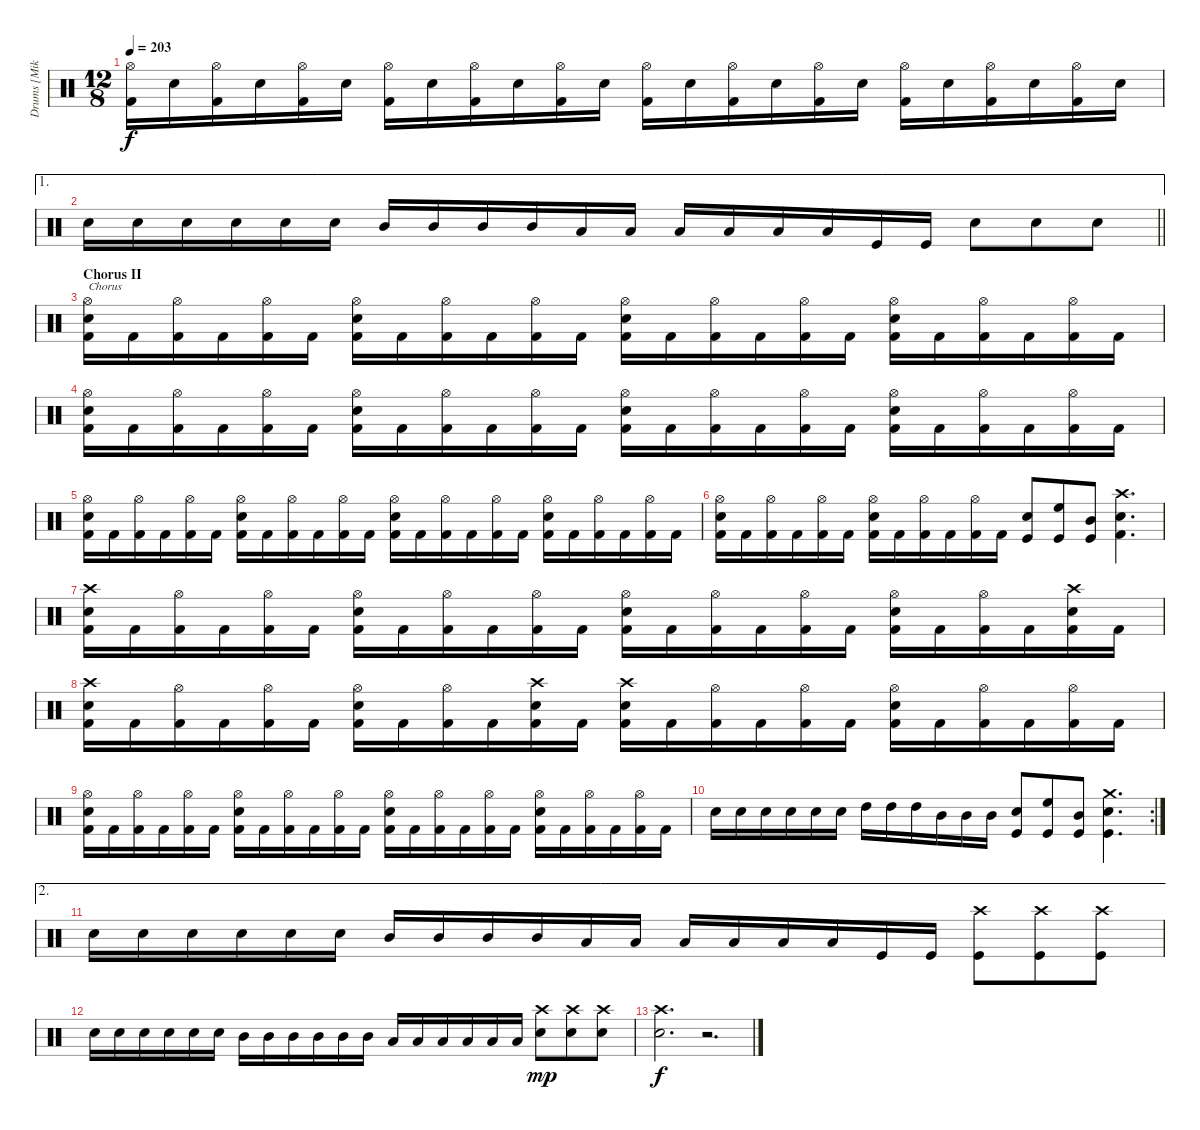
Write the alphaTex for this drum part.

\track ("Drums [Mike Smith]" "Drums [Mik") {instrument percussion}
\staff {score}
\articulation defaults
\ts (12 8)
\tempo 203
\clef neutral
\ks c
("Hi-Hat (open)" "Kick (hit) 2").16{dy f} "Electric Snare (hit)".16 ("Hi-Hat (open)" "Kick (hit) 2").16 "Electric Snare (hit)".16 ("Hi-Hat (open)" "Kick (hit) 2").16 "Electric Snare (hit)".16 ("Hi-Hat (open)" "Kick (hit) 2").16 "Electric Snare (hit)".16 ("Hi-Hat (open)" "Kick (hit) 2").16 "Electric Snare (hit)".16 ("Hi-Hat (open)" "Kick (hit) 2").16 "Electric Snare (hit)".16 ("Hi-Hat (open)" "Kick (hit) 2").16 "Electric Snare (hit)".16 ("Hi-Hat (open)" "Kick (hit) 2").16 "Electric Snare (hit)".16 ("Hi-Hat (open)" "Kick (hit) 2").16 "Electric Snare (hit)".16 ("Hi-Hat (open)" "Kick (hit) 2").16 "Electric Snare (hit)".16 ("Hi-Hat (open)" "Kick (hit) 2").16 "Electric Snare (hit)".16 ("Hi-Hat (open)" "Kick (hit) 2").16 "Electric Snare (hit)".16 |
\ae 1
\barLineRight lightlight "Electric Snare (hit)".16 "Electric Snare (hit)".16 "Electric Snare (hit)".16 "Electric Snare (hit)".16 "Electric Snare (hit)".16 "Electric Snare (hit)".16 "Mid Tom (hit)".16 "Mid Tom (hit)".16 "Mid Tom (hit)".16 "Mid Tom (hit)".16 "Low Tom (hit)".16 "Low Tom (hit)".16 "Low Tom (hit)".16 "Low Tom (hit)".16 "Low Tom (hit)".16 "Low Tom (hit)".16 "Kick (hit)".16 "Kick (hit)".16 "Electric Snare (hit)".8 "Electric Snare (hit)".8 "Electric Snare (hit)".8
|
\section ("" "Chorus II")
("Hi-Hat (open)" "Electric Snare (hit)" "Kick (hit) 2").16{txt "Chorus"} "Kick (hit) 2".16 ("Hi-Hat (open)" "Kick (hit) 2").16 "Kick (hit) 2".16 ("Hi-Hat (open)" "Kick (hit) 2").16 "Kick (hit) 2".16 ("Hi-Hat (open)" "Electric Snare (hit)" "Kick (hit) 2").16 "Kick (hit) 2".16 ("Hi-Hat (open)" "Kick (hit) 2").16 "Kick (hit) 2".16 ("Hi-Hat (open)" "Kick (hit) 2").16 "Kick (hit) 2".16 ("Hi-Hat (open)" "Electric Snare (hit)" "Kick (hit) 2").16 "Kick (hit) 2".16 ("Hi-Hat (open)" "Kick (hit) 2").16 "Kick (hit) 2".16 ("Hi-Hat (open)" "Kick (hit) 2").16 "Kick (hit) 2".16 ("Hi-Hat (open)" "Electric Snare (hit)" "Kick (hit) 2").16 "Kick (hit) 2".16 ("Hi-Hat (open)" "Kick (hit) 2").16 "Kick (hit) 2".16 ("Hi-Hat (open)" "Kick (hit) 2").16 "Kick (hit) 2".16 |
("Hi-Hat (open)" "Electric Snare (hit)" "Kick (hit) 2").16 "Kick (hit) 2".16 ("Hi-Hat (open)" "Kick (hit) 2").16 "Kick (hit) 2".16 ("Hi-Hat (open)" "Kick (hit) 2").16 "Kick (hit) 2".16 ("Hi-Hat (open)" "Electric Snare (hit)" "Kick (hit) 2").16 "Kick (hit) 2".16 ("Hi-Hat (open)" "Kick (hit) 2").16 "Kick (hit) 2".16 ("Hi-Hat (open)" "Kick (hit) 2").16 "Kick (hit) 2".16 ("Hi-Hat (open)" "Electric Snare (hit)" "Kick (hit) 2").16 "Kick (hit) 2".16 ("Hi-Hat (open)" "Kick (hit) 2").16 "Kick (hit) 2".16 ("Hi-Hat (open)" "Kick (hit) 2").16 "Kick (hit) 2".16 ("Hi-Hat (open)" "Electric Snare (hit)" "Kick (hit) 2").16 "Kick (hit) 2".16 ("Hi-Hat (open)" "Kick (hit) 2").16 "Kick (hit) 2".16 ("Hi-Hat (open)" "Kick (hit) 2").16 "Kick (hit) 2".16 |
("Hi-Hat (open)" "Electric Snare (hit)" "Kick (hit) 2").16 "Kick (hit) 2".16 ("Hi-Hat (open)" "Kick (hit) 2").16 "Kick (hit) 2".16 ("Hi-Hat (open)" "Kick (hit) 2").16 "Kick (hit) 2".16 ("Hi-Hat (open)" "Electric Snare (hit)" "Kick (hit) 2").16 "Kick (hit) 2".16 ("Hi-Hat (open)" "Kick (hit) 2").16 "Kick (hit) 2".16 ("Hi-Hat (open)" "Kick (hit) 2").16 "Kick (hit) 2".16 ("Hi-Hat (open)" "Electric Snare (hit)" "Kick (hit) 2").16 "Kick (hit) 2".16 ("Hi-Hat (open)" "Kick (hit) 2").16 "Kick (hit) 2".16 ("Hi-Hat (open)" "Kick (hit) 2").16 "Kick (hit) 2".16 ("Hi-Hat (open)" "Electric Snare (hit)" "Kick (hit) 2").16 "Kick (hit) 2".16 ("Hi-Hat (open)" "Kick (hit) 2").16 "Kick (hit) 2".16 ("Hi-Hat (open)" "Kick (hit) 2").16 "Kick (hit) 2".16 |
("Hi-Hat (open)" "Electric Snare (hit)" "Kick (hit) 2").16 "Kick (hit) 2".16 ("Hi-Hat (open)" "Kick (hit) 2").16 "Kick (hit) 2".16 ("Hi-Hat (open)" "Kick (hit) 2").16 "Kick (hit) 2".16 ("Hi-Hat (open)" "Electric Snare (hit)" "Kick (hit) 2").16 "Kick (hit) 2".16 ("Hi-Hat (open)" "Kick (hit) 2").16 "Kick (hit) 2".16 ("Hi-Hat (open)" "Kick (hit) 2").16 "Kick (hit) 2".16 ("Electric Snare (hit)" "Kick (hit)").8 ("High Floor Tom (hit)" "Kick (hit)").8 ("Mid Tom (hit)" "Kick (hit)").8 ("Crash high (hit)" "Electric Snare (hit)" "Kick (hit) 2").4{d} |
("Crash high (hit)" "Electric Snare (hit)" "Kick (hit) 2").16 "Kick (hit) 2".16 ("Hi-Hat (open)" "Kick (hit) 2").16 "Kick (hit) 2".16 ("Hi-Hat (open)" "Kick (hit) 2").16 "Kick (hit) 2".16 ("Hi-Hat (open)" "Electric Snare (hit)" "Kick (hit) 2").16 "Kick (hit) 2".16 ("Hi-Hat (open)" "Kick (hit) 2").16 "Kick (hit) 2".16 ("Hi-Hat (open)" "Kick (hit) 2").16 "Kick (hit) 2".16 ("Hi-Hat (open)" "Electric Snare (hit)" "Kick (hit) 2").16 "Kick (hit) 2".16 ("Hi-Hat (open)" "Kick (hit) 2").16 "Kick (hit) 2".16 ("Hi-Hat (open)" "Kick (hit) 2").16 "Kick (hit) 2".16 ("Hi-Hat (open)" "Electric Snare (hit)" "Kick (hit) 2").16 "Kick (hit) 2".16 ("Hi-Hat (open)" "Kick (hit) 2").16 "Kick (hit) 2".16 ("Crash high (hit)" "Electric Snare (hit)" "Kick (hit) 2").16 "Kick (hit) 2".16 |
("Crash high (hit)" "Electric Snare (hit)" "Kick (hit) 2").16 "Kick (hit) 2".16 ("Hi-Hat (open)" "Kick (hit) 2").16 "Kick (hit) 2".16 ("Hi-Hat (open)" "Kick (hit) 2").16 "Kick (hit) 2".16 ("Hi-Hat (open)" "Electric Snare (hit)" "Kick (hit) 2").16 "Kick (hit) 2".16 ("Hi-Hat (open)" "Kick (hit) 2").16 "Kick (hit) 2".16 ("Crash high (hit)" "Electric Snare (hit)" "Kick (hit) 2").16 "Kick (hit) 2".16 ("Crash high (hit)" "Electric Snare (hit)" "Kick (hit) 2").16 "Kick (hit) 2".16 ("Hi-Hat (open)" "Kick (hit) 2").16 "Kick (hit) 2".16 ("Hi-Hat (open)" "Kick (hit) 2").16 "Kick (hit) 2".16 ("Hi-Hat (open)" "Electric Snare (hit)" "Kick (hit) 2").16 "Kick (hit) 2".16 ("Hi-Hat (open)" "Kick (hit) 2").16 "Kick (hit) 2".16 ("Hi-Hat (open)" "Kick (hit) 2").16 "Kick (hit) 2".16 |
("Hi-Hat (open)" "Electric Snare (hit)" "Kick (hit) 2").16 "Kick (hit) 2".16 ("Hi-Hat (open)" "Kick (hit) 2").16 "Kick (hit) 2".16 ("Hi-Hat (open)" "Kick (hit) 2").16 "Kick (hit) 2".16 ("Hi-Hat (open)" "Electric Snare (hit)" "Kick (hit) 2").16 "Kick (hit) 2".16 ("Hi-Hat (open)" "Kick (hit) 2").16 "Kick (hit) 2".16 ("Hi-Hat (open)" "Kick (hit) 2").16 "Kick (hit) 2".16 ("Hi-Hat (open)" "Electric Snare (hit)" "Kick (hit) 2").16 "Kick (hit) 2".16 ("Hi-Hat (open)" "Kick (hit) 2").16 "Kick (hit) 2".16 ("Hi-Hat (open)" "Kick (hit) 2").16 "Kick (hit) 2".16 ("Hi-Hat (open)" "Electric Snare (hit)" "Kick (hit) 2").16 "Kick (hit) 2".16 ("Hi-Hat (open)" "Kick (hit) 2").16 "Kick (hit) 2".16 ("Hi-Hat (open)" "Kick (hit) 2").16 "Kick (hit) 2".16 |
\rc 2 "Electric Snare (hit)".16 "Electric Snare (hit)".16 "Electric Snare (hit)".16 "Electric Snare (hit)".16 "Electric Snare (hit)".16 "Electric Snare (hit)".16 "High Tom (hit)".16 "High Tom (hit)".16 "High Tom (hit)".16 "Mid Tom (hit)".16 "Mid Tom (hit)".16 "Mid Tom (hit)".16
("Electric Snare (hit)" "Kick (hit)").8 ("High Floor Tom (hit)" "Kick (hit)").8 ("Mid Tom (hit)" "Kick (hit)").8 ("Crash medium (hit)" "Electric Snare (hit)" "Kick (hit)").4{d} |
\ae 2 "Electric Snare (hit)".16 "Electric Snare (hit)".16 "Electric Snare (hit)".16 "Electric Snare (hit)".16 "Electric Snare (hit)".16 "Electric Snare (hit)".16 "Mid Tom (hit)".16 "Mid Tom (hit)".16 "Mid Tom (hit)".16 "Mid Tom (hit)".16 "Low Tom (hit)".16 "Low Tom (hit)".16 "Low Tom (hit)".16 "Low Tom (hit)".16 "Low Tom (hit)".16 "Low Tom (hit)".16 "Kick (hit)".16 "Kick (hit)".16
("Crash high (hit)" "Kick (hit)").8 ("Crash high (hit)" "Kick (hit)").8 ("Crash high (hit)" "Kick (hit)").8 |
"Electric Snare (hit)".16 "Electric Snare (hit)".16 "Electric Snare (hit)".16 "Electric Snare (hit)".16 "Electric Snare (hit)".16 "Electric Snare (hit)".16 "Mid Tom (hit)".16 "Mid Tom (hit)".16 "Mid Tom (hit)".16 "Mid Tom (hit)".16 "Mid Tom (hit)".16 "Mid Tom (hit)".16 "Low Floor Tom (hit)".16 "Low Floor Tom (hit)".16 "Low Floor Tom (hit)".16 "Low Floor Tom (hit)".16 "Low Floor Tom (hit)".16 "Low Floor Tom (hit)".16 ("Crash high (hit)" "Electric Snare (hit)").8{dy mp} ("Crash high (hit)" "Electric Snare (hit)").8 ("Crash high (hit)" "Electric Snare (hit)").8 |
("Crash high (hit)" "Electric Snare (hit)").2{d dy f} r.2{d}
